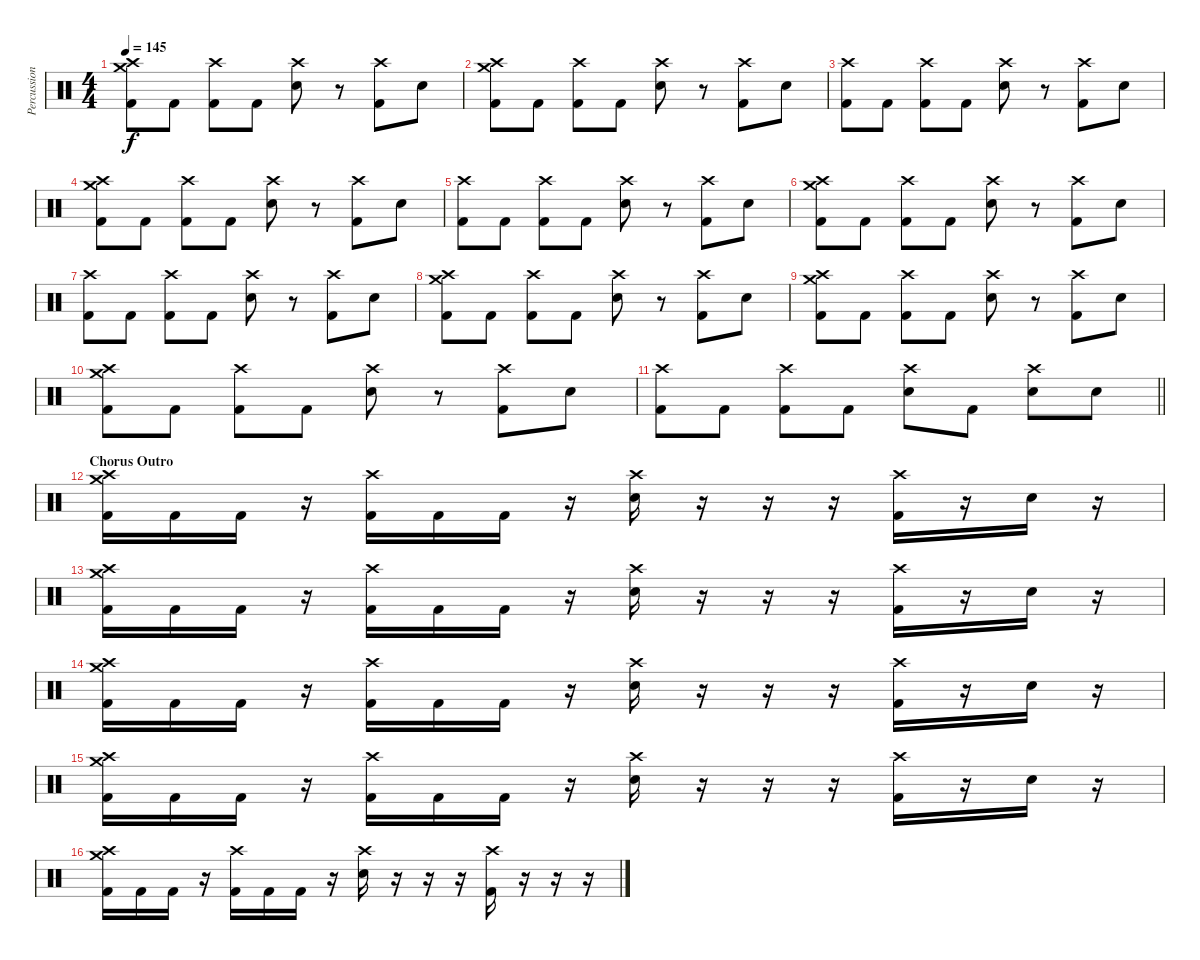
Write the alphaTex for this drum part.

\track ("Percussion" "Percussion") {instrument percussion}
\staff {score}
\articulation defaults
\ts (4 4)
\tempo 145
\clef neutral
\ks c
("Crash medium (hit)" "Crash high (hit)" "Kick (hit) 2").8{dy f} "Kick (hit) 2".8 ("Crash high (hit)" "Kick (hit) 2").8 "Kick (hit) 2".8 ("Crash high (hit)" "Electric Snare (hit)").8 r.8 ("Crash high (hit)" "Kick (hit) 2").8 "Electric Snare (hit)".8 |
("Crash medium (hit)" "Crash high (hit)" "Kick (hit) 2").8 "Kick (hit) 2".8 ("Crash high (hit)" "Kick (hit) 2").8 "Kick (hit) 2".8 ("Crash high (hit)" "Electric Snare (hit)").8 r.8 ("Crash high (hit)" "Kick (hit) 2").8 "Electric Snare (hit)".8 |
("Crash high (hit)" "Kick (hit) 2").8 "Kick (hit) 2".8 ("Crash high (hit)" "Kick (hit) 2").8 "Kick (hit) 2".8 ("Crash high (hit)" "Electric Snare (hit)").8 r.8 ("Crash high (hit)" "Kick (hit) 2").8 "Electric Snare (hit)".8 |
("Crash medium (hit)" "Crash high (hit)" "Kick (hit) 2").8 "Kick (hit) 2".8 ("Crash high (hit)" "Kick (hit) 2").8 "Kick (hit) 2".8 ("Crash high (hit)" "Electric Snare (hit)").8 r.8 ("Crash high (hit)" "Kick (hit) 2").8 "Electric Snare (hit)".8 |
("Crash high (hit)" "Kick (hit) 2").8 "Kick (hit) 2".8 ("Crash high (hit)" "Kick (hit) 2").8 "Kick (hit) 2".8 ("Crash high (hit)" "Electric Snare (hit)").8 r.8 ("Crash high (hit)" "Kick (hit) 2").8 "Electric Snare (hit)".8 |
("Crash medium (hit)" "Crash high (hit)" "Kick (hit) 2").8 "Kick (hit) 2".8 ("Crash high (hit)" "Kick (hit) 2").8 "Kick (hit) 2".8 ("Crash high (hit)" "Electric Snare (hit)").8 r.8 ("Crash high (hit)" "Kick (hit) 2").8 "Electric Snare (hit)".8 |
("Crash high (hit)" "Kick (hit) 2").8 "Kick (hit) 2".8 ("Crash high (hit)" "Kick (hit) 2").8 "Kick (hit) 2".8 ("Crash high (hit)" "Electric Snare (hit)").8 r.8 ("Crash high (hit)" "Kick (hit) 2").8 "Electric Snare (hit)".8 |
("Crash medium (hit)" "Crash high (hit)" "Kick (hit) 2").8 "Kick (hit) 2".8 ("Crash high (hit)" "Kick (hit) 2").8 "Kick (hit) 2".8 ("Crash high (hit)" "Electric Snare (hit)").8 r.8 ("Crash high (hit)" "Kick (hit) 2").8 "Electric Snare (hit)".8 |
("Crash medium (hit)" "Crash high (hit)" "Kick (hit) 2").8 "Kick (hit) 2".8 ("Crash high (hit)" "Kick (hit) 2").8 "Kick (hit) 2".8 ("Crash high (hit)" "Electric Snare (hit)").8 r.8 ("Crash high (hit)" "Kick (hit) 2").8 "Electric Snare (hit)".8 |
("Crash medium (hit)" "Crash high (hit)" "Kick (hit) 2").8 "Kick (hit) 2".8 ("Crash high (hit)" "Kick (hit) 2").8 "Kick (hit) 2".8 ("Crash high (hit)" "Electric Snare (hit)").8 r.8 ("Crash high (hit)" "Kick (hit) 2").8 "Electric Snare (hit)".8 |
\barLineRight lightlight
("Crash high (hit)" "Kick (hit) 2").8 "Kick (hit) 2".8 ("Crash high (hit)" "Kick (hit) 2").8 "Kick (hit) 2".8 ("Crash high (hit)" "Electric Snare (hit)").8 "Kick (hit) 2".8 ("Crash high (hit)" "Electric Snare (hit)").8 "Electric Snare (hit)".8 |
\section ("" "Chorus Outro")
("Crash medium (hit)" "Crash high (hit)" "Kick (hit) 2").16 "Kick (hit) 2".16 "Kick (hit) 2".16 r.16 ("Crash high (hit)" "Kick (hit) 2").16 "Kick (hit) 2".16 "Kick (hit) 2".16 r.16 ("Crash high (hit)" "Electric Snare (hit)").16 r.16 r.16 r.16 ("Crash high (hit)" "Kick (hit) 2").16 r.16 "Electric Snare (hit)".16 r.16 |
("Crash medium (hit)" "Crash high (hit)" "Kick (hit) 2").16 "Kick (hit) 2".16 "Kick (hit) 2".16 r.16 ("Crash high (hit)" "Kick (hit) 2").16 "Kick (hit) 2".16 "Kick (hit) 2".16 r.16 ("Crash high (hit)" "Electric Snare (hit)").16 r.16 r.16 r.16 ("Crash high (hit)" "Kick (hit) 2").16 r.16 "Electric Snare (hit)".16 r.16 |
("Crash medium (hit)" "Crash high (hit)" "Kick (hit) 2").16 "Kick (hit) 2".16 "Kick (hit) 2".16 r.16 ("Crash high (hit)" "Kick (hit) 2").16 "Kick (hit) 2".16 "Kick (hit) 2".16 r.16 ("Crash high (hit)" "Electric Snare (hit)").16 r.16 r.16 r.16 ("Crash high (hit)" "Kick (hit) 2").16 r.16 "Electric Snare (hit)".16 r.16 |
("Crash medium (hit)" "Crash high (hit)" "Kick (hit) 2").16 "Kick (hit) 2".16 "Kick (hit) 2".16 r.16 ("Crash high (hit)" "Kick (hit) 2").16 "Kick (hit) 2".16 "Kick (hit) 2".16 r.16 ("Crash high (hit)" "Electric Snare (hit)").16 r.16 r.16 r.16 ("Crash high (hit)" "Kick (hit) 2").16 r.16 "Electric Snare (hit)".16 r.16 |
("Crash medium (hit)" "Crash high (hit)" "Kick (hit) 2").16 "Kick (hit) 2".16 "Kick (hit) 2".16 r.16 ("Crash high (hit)" "Kick (hit) 2").16 "Kick (hit) 2".16 "Kick (hit) 2".16 r.16 ("Crash high (hit)" "Electric Snare (hit)").16 r.16 r.16 r.16 ("Crash high (hit)" "Kick (hit) 2").16 r.16 r.16 r.16
